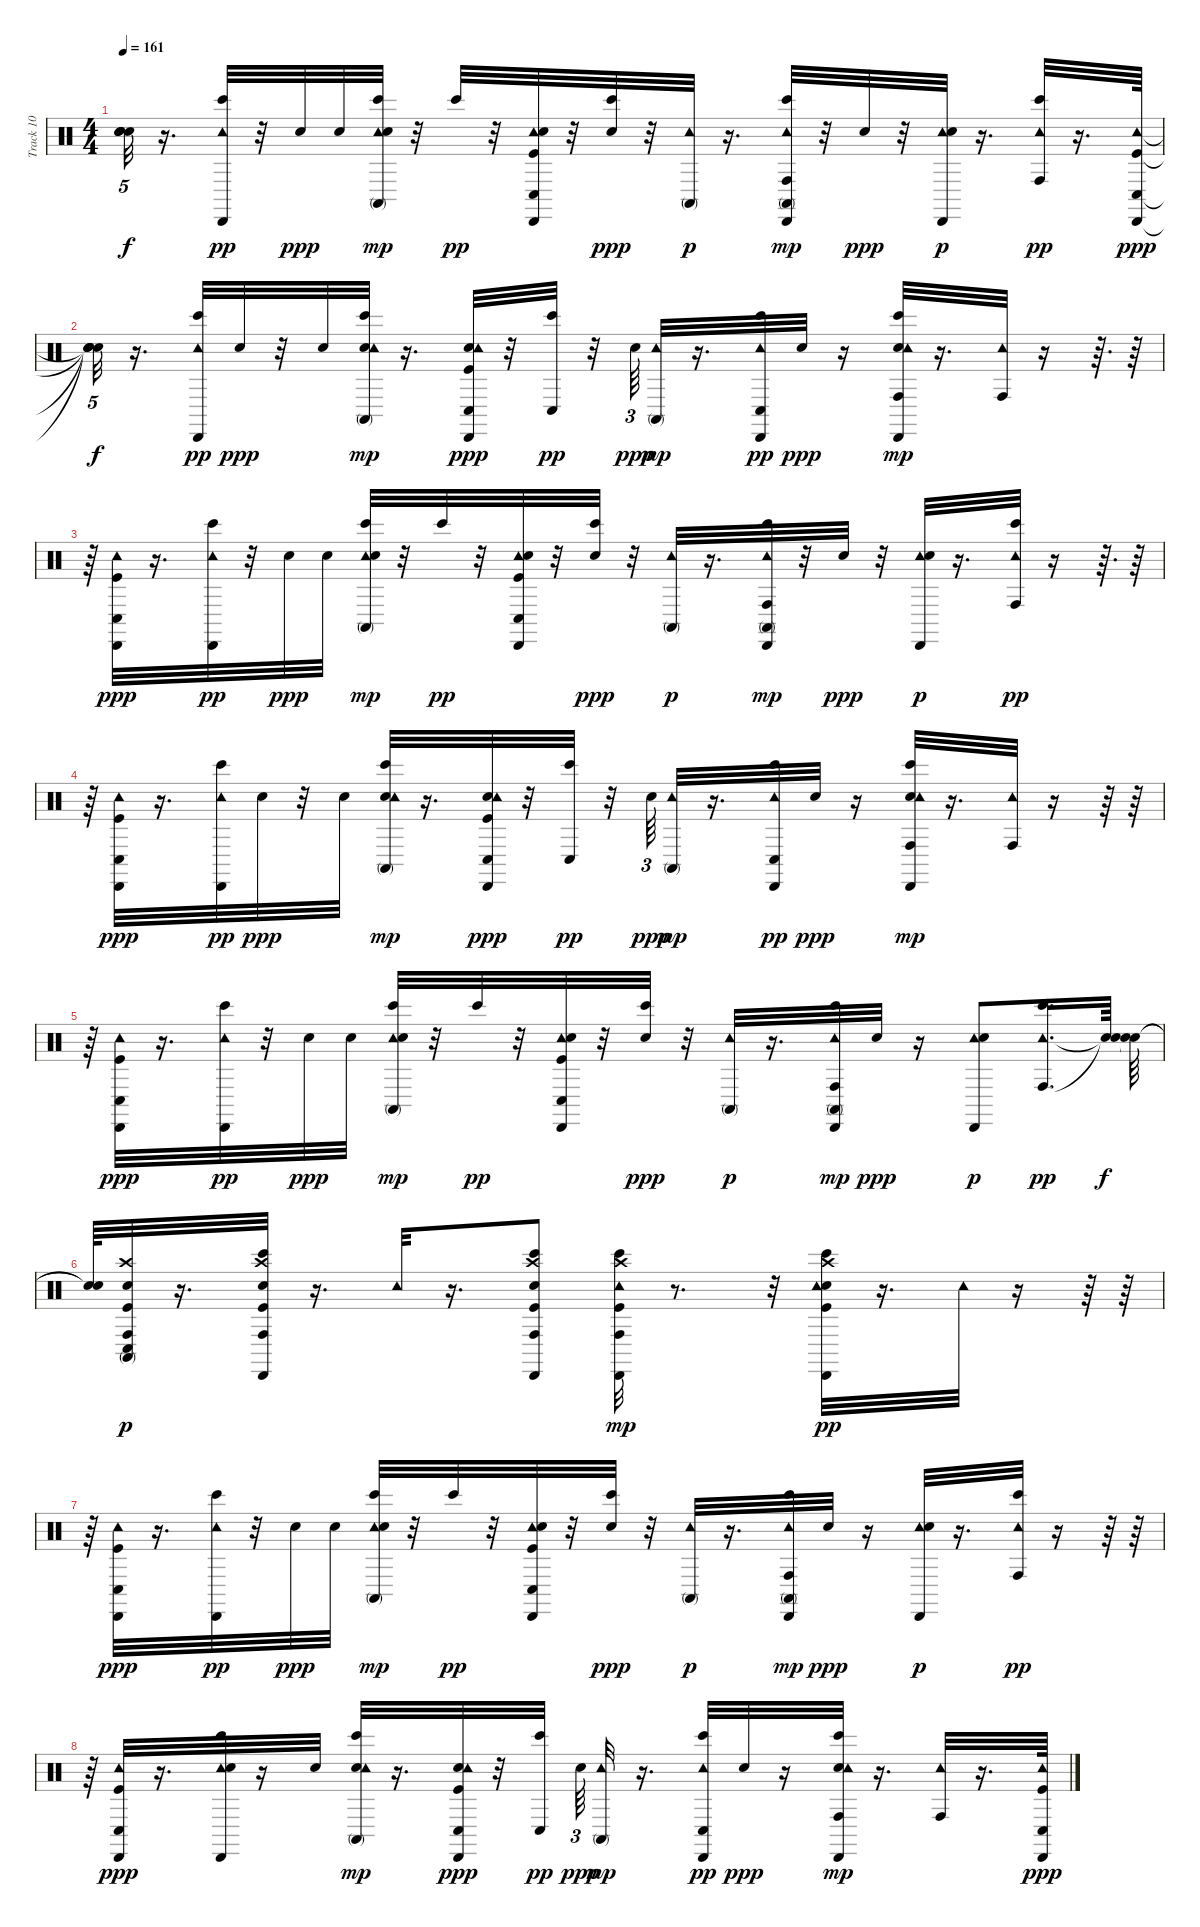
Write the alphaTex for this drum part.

\track ("Track 10" "Track 10") {instrument percussion}
\staff {score}
\articulation defaults
\ts (4 4)
\tempo 161
\clef neutral
\ks c
("Snare (hit)"{t} "Snare (hit)"{t} "Snare (hit)"{t} "Snare (hit)"{t}).32{tu (5 4) dy f} r.16{d} ("Tambourine (hit)" "Cabasa (hit)" "Bongo High (hit)").32{dy pp} r.32 "Electric Snare (hit)".32{dy ppp} "Electric Snare (hit)".32 ("Tambourine (hit)" "Bongo High (hit)" "Conga high (mute)" "Electric Snare (hit)").32{dy mp} r.32 "Bongo High (hit)".32{dy pp} r.32 ("Tambourine (hit)" "Conga low (hit)" "Cabasa (hit)" "Kick (hit)" "Electric Snare (hit)").32 r.32 ("Bongo High (hit)" "Electric Snare (hit)").32{dy ppp} r.32 ("Tambourine (hit)" "Conga high (mute)").32{dy p} r.16{d} ("Tambourine (hit)" "Cabasa (hit)" "Bongo High (hit)" "Conga high (mute)" "Conga high (hit)").32{dy mp} r.32 "Electric Snare (hit)".32{dy ppp} r.32 ("Tambourine (hit)" "Cabasa (hit)" "Electric Snare (hit)").32{dy p} r.16{d} ("Tambourine (hit)" "Conga high (hit)" "Bongo High (hit)").32{dy pp} r.16{d} ("Kick (hit)" "Tambourine (hit)" "Cabasa (hit)" "Conga low (hit)").64{dy ppp} |
("Snare (hit)"{t} "Snare (hit)"{t} "Snare (hit)"{t} "Snare (hit)"{t}).32{tu (5 4) dy f} r.16{d} ("Tambourine (hit)" "Cabasa (hit)" "Bongo High (hit)").32{dy pp} "Electric Snare (hit)".32{dy ppp} r.32 "Electric Snare (hit)".32 ("Electric Snare (hit)" "Tambourine (hit)" "Bongo High (hit)" "Conga high (mute)").32{dy mp} r.16{d} ("Kick (hit)" "Electric Snare (hit)" "Tambourine (hit)" "Cabasa (hit)" "Conga low (hit)").32{dy ppp} r.32 ("Bongo High (hit)" "Conga low (hit)").32{dy pp} r.32 "Electric Snare (hit)".64{tu (3 2) dy ppp} ("Tambourine (hit)" "Conga high (mute)").32{dy mp} r.16{d} ("Bongo High (hit)" "Tambourine (hit)" "Cabasa (hit)" "Conga low (hit)").32{dy pp} "Electric Snare (hit)".32{dy ppp} r.16 ("Electric Snare (hit)" "Bongo High (hit)" "Tambourine (hit)" "Cabasa (hit)" "Conga high (hit)").32{dy mp} r.16{d} ("Tambourine (hit)" "Conga high (hit)").32 r.16 r.64{d} r.64 |
r.64 ("Kick (hit)" "Tambourine (hit)" "Cabasa (hit)" "Conga low (hit)").32{dy ppp} r.16{d} ("Tambourine (hit)" "Cabasa (hit)" "Bongo High (hit)").32{dy pp} r.32 "Electric Snare (hit)".32{dy ppp} "Electric Snare (hit)".32 ("Tambourine (hit)" "Bongo High (hit)" "Conga high (mute)" "Electric Snare (hit)").32{dy mp} r.32 "Bongo High (hit)".32{dy pp} r.32 ("Tambourine (hit)" "Conga low (hit)" "Cabasa (hit)" "Kick (hit)" "Electric Snare (hit)").32 r.32 ("Bongo High (hit)" "Electric Snare (hit)").32{dy ppp} r.32 ("Tambourine (hit)" "Conga high (mute)").32{dy p} r.16{d} ("Tambourine (hit)" "Cabasa (hit)" "Bongo High (hit)" "Conga high (mute)" "Conga high (hit)").32{dy mp} r.32 "Electric Snare (hit)".32{dy ppp} r.32 ("Tambourine (hit)" "Cabasa (hit)" "Electric Snare (hit)").32{dy p} r.16{d} ("Tambourine (hit)" "Conga high (hit)" "Bongo High (hit)").32{dy pp} r.16 r.64{d} r.64 |
r.64 ("Kick (hit)" "Tambourine (hit)" "Cabasa (hit)" "Conga low (hit)").32{dy ppp} r.16{d} ("Tambourine (hit)" "Cabasa (hit)" "Bongo High (hit)").32{dy pp} "Electric Snare (hit)".32{dy ppp} r.32 "Electric Snare (hit)".32 ("Electric Snare (hit)" "Tambourine (hit)" "Bongo High (hit)" "Conga high (mute)").32{dy mp} r.16{d} ("Kick (hit)" "Electric Snare (hit)" "Tambourine (hit)" "Cabasa (hit)" "Conga low (hit)").32{dy ppp} r.32 ("Bongo High (hit)" "Conga low (hit)").32{dy pp} r.32 "Electric Snare (hit)".64{tu (3 2) dy ppp} ("Tambourine (hit)" "Conga high (mute)").32{dy mp} r.16{d} ("Bongo High (hit)" "Tambourine (hit)" "Cabasa (hit)" "Conga low (hit)").32{dy pp} "Electric Snare (hit)".32{dy ppp} r.16 ("Electric Snare (hit)" "Bongo High (hit)" "Tambourine (hit)" "Cabasa (hit)" "Conga high (hit)").32{dy mp} r.16{d} ("Tambourine (hit)" "Conga high (hit)").32 r.16 r.64 r.64 |
r.64 ("Kick (hit)" "Tambourine (hit)" "Cabasa (hit)" "Conga low (hit)").32{dy ppp} r.16{d} ("Tambourine (hit)" "Cabasa (hit)" "Bongo High (hit)").32{dy pp} r.32 "Electric Snare (hit)".32{dy ppp} "Electric Snare (hit)".32 ("Tambourine (hit)" "Bongo High (hit)" "Conga high (mute)" "Electric Snare (hit)").32{dy mp} r.32 "Bongo High (hit)".32{dy pp} r.32 ("Tambourine (hit)" "Conga low (hit)" "Cabasa (hit)" "Kick (hit)" "Electric Snare (hit)").32 r.32 ("Bongo High (hit)" "Electric Snare (hit)").32{dy ppp} r.32 ("Tambourine (hit)" "Conga high (mute)").32{dy p} r.16{d} ("Tambourine (hit)" "Cabasa (hit)" "Bongo High (hit)" "Conga high (mute)" "Conga high (hit)").32{dy mp} "Electric Snare (hit)".32{dy ppp} r.16 ("Tambourine (hit)" "Cabasa (hit)" "Electric Snare (hit)").8{dy p} ("Tambourine (hit)" "Conga high (hit)" "Bongo High (hit)").16{d dy pp} ("Snare (hit)"{t} "Snare (hit)"{t}).64{dy f} ("Snare (hit)"{t} "Snare (hit)"{t}).64 |
("Snare (hit)"{t} "Snare (hit)"{t}).64 ("Conga low (hit)" "Conga high (hit)" "Conga high (mute)" "Electric Snare (hit)" "Crash high (hit)" "Kick (hit)").32{dy p} r.16{d} ("Conga high (hit)" "Bongo High (hit)" "Cabasa (hit)" "Kick (hit)" "Electric Snare (hit)" "Crash high (hit)").32 r.16{d} "Tambourine (hit)".32 r.16{d} ("Conga high (hit)" "Kick (hit)" "Bongo High (hit)" "Cabasa (hit)" "Electric Snare (hit)" "Crash high (hit)").8 ("Conga high (hit)" "Cabasa (hit)" "Bongo High (hit)" "Crash high (hit)" "Kick (hit)" "Tambourine (hit)").32{dy mp} r.8{d} r.32 ("Crash high (hit)" "Bongo High (hit)" "Kick (hit)" "Electric Snare (hit)" "Tambourine (hit)" "Cabasa (hit)").32{dy pp} r.16{d} "Tambourine (hit)".32 r.16 r.64 r.64 |
r.64 ("Kick (hit)" "Tambourine (hit)" "Cabasa (hit)" "Conga low (hit)").32{dy ppp} r.16{d} ("Tambourine (hit)" "Cabasa (hit)" "Bongo High (hit)").32{dy pp} r.32 "Electric Snare (hit)".32{dy ppp} "Electric Snare (hit)".32 ("Tambourine (hit)" "Bongo High (hit)" "Conga high (mute)" "Electric Snare (hit)").32{dy mp} r.32 "Bongo High (hit)".32{dy pp} r.32 ("Tambourine (hit)" "Conga low (hit)" "Cabasa (hit)" "Kick (hit)" "Electric Snare (hit)").32 r.32 ("Bongo High (hit)" "Electric Snare (hit)").32{dy ppp} r.32 ("Tambourine (hit)" "Conga high (mute)").32{dy p} r.16{d} ("Tambourine (hit)" "Cabasa (hit)" "Bongo High (hit)" "Conga high (mute)" "Conga high (hit)").32{dy mp} "Electric Snare (hit)".32{dy ppp} r.16 ("Tambourine (hit)" "Cabasa (hit)" "Electric Snare (hit)").32{dy p} r.16{d} ("Tambourine (hit)" "Conga high (hit)" "Bongo High (hit)").32{dy pp} r.16 r.64 r.64 |
r.64 ("Kick (hit)" "Tambourine (hit)" "Cabasa (hit)" "Conga low (hit)").32{dy ppp} r.16{d} ("Tambourine (hit)" "Cabasa (hit)" "Bongo High (hit)" "Electric Snare (hit)").32 r.16 "Electric Snare (hit)".32 ("Electric Snare (hit)" "Tambourine (hit)" "Bongo High (hit)" "Conga high (mute)").32{dy mp} r.16{d} ("Kick (hit)" "Electric Snare (hit)" "Tambourine (hit)" "Cabasa (hit)" "Conga low (hit)").32{dy ppp} r.32 ("Bongo High (hit)" "Conga low (hit)").32{dy pp beam splitsecondary} "Electric Snare (hit)".64{tu (3 2) dy ppp} ("Tambourine (hit)" "Conga high (mute)").32{dy mp} r.16{d} ("Bongo High (hit)" "Tambourine (hit)" "Cabasa (hit)" "Conga low (hit)").32{dy pp} "Electric Snare (hit)".32{dy ppp} r.16 ("Electric Snare (hit)" "Bongo High (hit)" "Tambourine (hit)" "Cabasa (hit)" "Conga high (hit)").32{dy mp} r.16{d} ("Tambourine (hit)" "Conga high (hit)").32 r.16{d} ("Kick (hit)" "Tambourine (hit)" "Cabasa (hit)" "Conga low (hit)").64{dy ppp}
